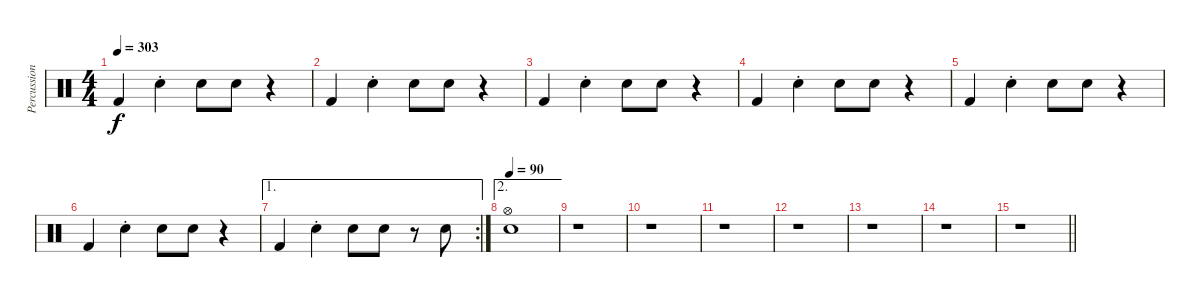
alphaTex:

\track ("Percussions" "Percussion") {instrument percussion}
\staff {score}
\articulation defaults
\ts (4 4)
\tempo 303
\clef neutral
\ks c "Kick (hit) 2".4{dy f} "Electric Snare (hit)"{st}.4 "Electric Snare (hit)".8 "Electric Snare (hit)".8
r.4 |
"Kick (hit) 2".4 "Electric Snare (hit)"{st}.4 "Electric Snare (hit)".8 "Electric Snare (hit)".8 r.4 |
"Kick (hit) 2".4 "Electric Snare (hit)"{st}.4 "Electric Snare (hit)".8 "Electric Snare (hit)".8 r.4 |
"Kick (hit) 2".4 "Electric Snare (hit)"{st}.4 "Electric Snare (hit)".8 "Electric Snare (hit)".8 r.4 |
"Kick (hit) 2".4 "Electric Snare (hit)"{st}.4 "Electric Snare (hit)".8 "Electric Snare (hit)".8 r.4 |
"Kick (hit) 2".4 "Electric Snare (hit)"{st}.4 "Electric Snare (hit)".8 "Electric Snare (hit)".8 r.4 |
\ae 1
\rc 2 "Kick (hit) 2".4 "Electric Snare (hit)"{st}.4 "Electric Snare (hit)".8 "Electric Snare (hit)".8
r.8 "Electric Snare (hit)".8 |
\ae 2
\tempo 90
("Hi-Hat (open)" "Electric Snare (hit)").1 |
r.1 |
r.1 |
r.1 |
r.1 |
r.1 |
r.1 |
\barLineRight lightlight
r.1
